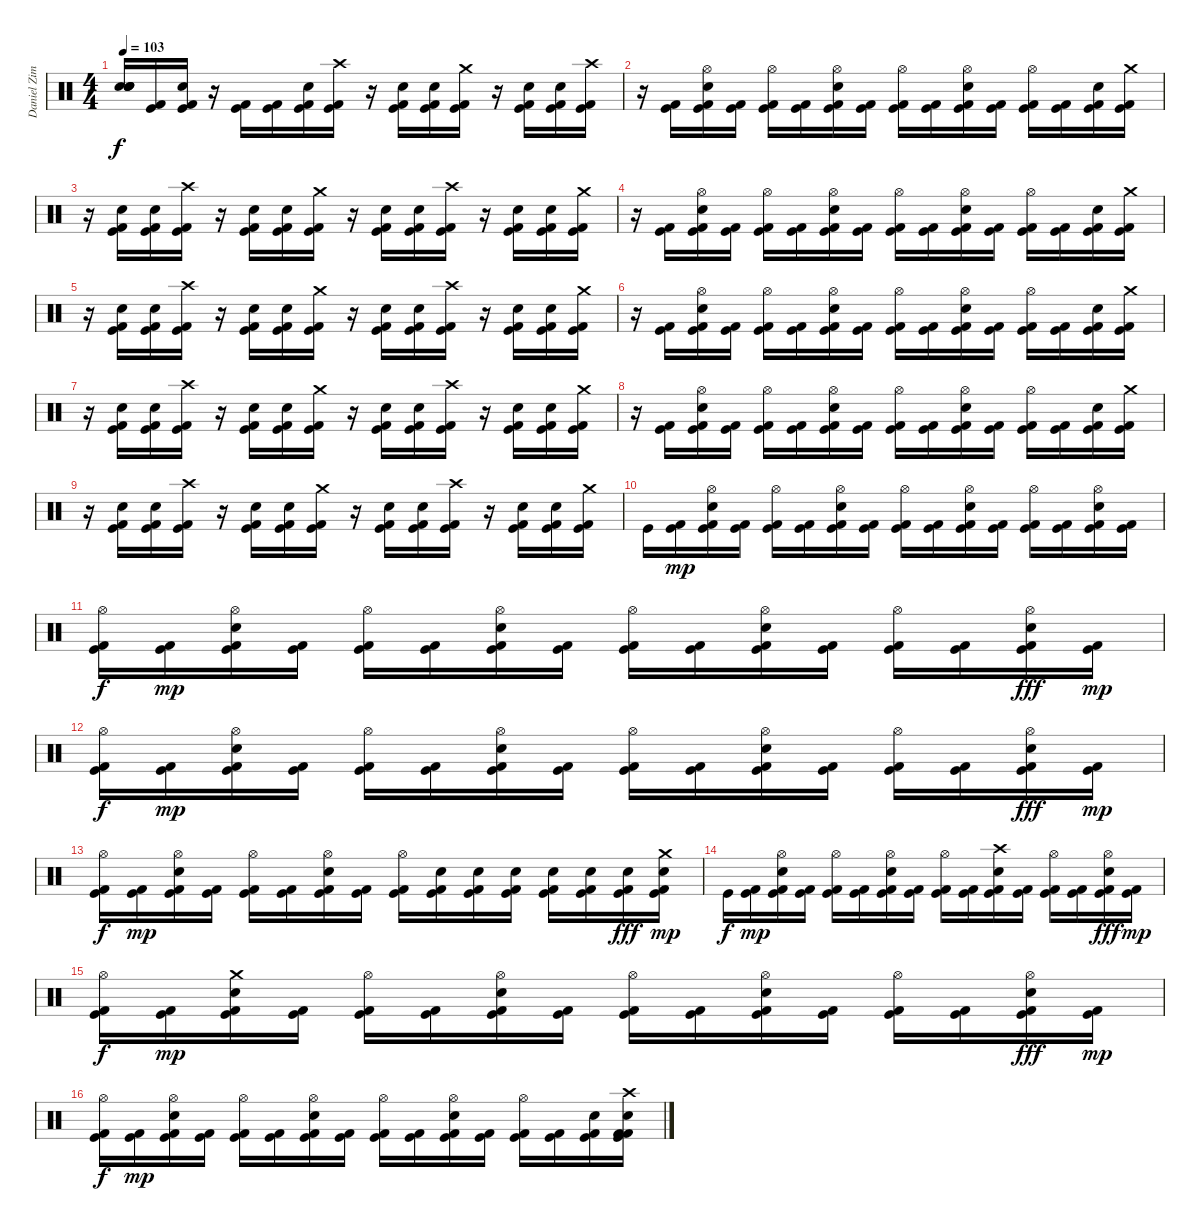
\track ("Daniel Zimmermann - Drums" "Daniel Zim") {instrument percussion}
\staff {score}
\articulation defaults
\ts (4 4)
\tempo 103
\clef neutral
\ks c
("Snare (hit)"{t} "Snare (hit)"{t} "Snare (hit)"{t} "Snare (hit)"{t}).16{dy f} ("Kick (hit)" "Kick (hit) 2").16 ("Kick (hit)" "Kick (hit) 2" "Electric Snare (hit)").16 r.16 ("Kick (hit)" "Kick (hit) 2").16 ("Kick (hit)" "Kick (hit) 2").16 ("Kick (hit)" "Kick (hit) 2" "Electric Snare (hit)").16 ("Kick (hit)" "Kick (hit) 2" "Crash high (hit)").16 r.16 ("Kick (hit)" "Kick (hit) 2" "Electric Snare (hit)").16 ("Kick (hit)" "Kick (hit) 2" "Electric Snare (hit)").16 ("Kick (hit)" "Kick (hit) 2" "Crash medium (hit)").16 r.16 ("Kick (hit)" "Kick (hit) 2" "Electric Snare (hit)").16 ("Kick (hit)" "Kick (hit) 2" "Electric Snare (hit)").16 ("Kick (hit)" "Kick (hit) 2" "Crash high (hit)").16 |
r.16 ("Kick (hit)" "Kick (hit) 2").16 ("Kick (hit)" "Kick (hit) 2" "Electric Snare (hit)" "Hi-Hat (open)").16 ("Kick (hit)" "Kick (hit) 2").16 ("Kick (hit)" "Kick (hit) 2" "Hi-Hat (open)").16 ("Kick (hit)" "Kick (hit) 2").16 ("Kick (hit)" "Kick (hit) 2" "Electric Snare (hit)" "Hi-Hat (open)").16 ("Kick (hit)" "Kick (hit) 2").16 ("Kick (hit)" "Kick (hit) 2" "Hi-Hat (open)").16 ("Kick (hit)" "Kick (hit) 2").16 ("Kick (hit)" "Kick (hit) 2" "Electric Snare (hit)" "Hi-Hat (open)").16 ("Kick (hit)" "Kick (hit) 2").16 ("Kick (hit)" "Kick (hit) 2" "Hi-Hat (open)").16 ("Kick (hit)" "Kick (hit) 2").16 ("Kick (hit)" "Kick (hit) 2" "Electric Snare (hit)").16 ("Kick (hit)" "Kick (hit) 2" "Crash medium (hit)").16 |
r.16 ("Kick (hit)" "Kick (hit) 2" "Electric Snare (hit)").16 ("Kick (hit)" "Kick (hit) 2" "Electric Snare (hit)").16 ("Kick (hit)" "Kick (hit) 2" "Crash high (hit)").16 r.16 ("Kick (hit)" "Kick (hit) 2" "Electric Snare (hit)").16 ("Kick (hit)" "Kick (hit) 2" "Electric Snare (hit)").16 ("Kick (hit)" "Kick (hit) 2" "Crash medium (hit)").16 r.16 ("Kick (hit)" "Kick (hit) 2" "Electric Snare (hit)").16 ("Kick (hit)" "Kick (hit) 2" "Electric Snare (hit)").16 ("Kick (hit)" "Kick (hit) 2" "Crash high (hit)").16 r.16 ("Kick (hit)" "Kick (hit) 2" "Electric Snare (hit)").16 ("Kick (hit)" "Kick (hit) 2" "Electric Snare (hit)").16 ("Kick (hit)" "Kick (hit) 2" "Crash medium (hit)").16 |
r.16 ("Kick (hit)" "Kick (hit) 2").16 ("Kick (hit)" "Kick (hit) 2" "Electric Snare (hit)" "Hi-Hat (open)").16 ("Kick (hit)" "Kick (hit) 2").16 ("Kick (hit)" "Kick (hit) 2" "Hi-Hat (open)").16 ("Kick (hit)" "Kick (hit) 2").16 ("Kick (hit)" "Kick (hit) 2" "Electric Snare (hit)" "Hi-Hat (open)").16 ("Kick (hit)" "Kick (hit) 2").16 ("Kick (hit)" "Kick (hit) 2" "Hi-Hat (open)").16 ("Kick (hit)" "Kick (hit) 2").16 ("Kick (hit)" "Kick (hit) 2" "Electric Snare (hit)" "Hi-Hat (open)").16 ("Kick (hit)" "Kick (hit) 2").16 ("Kick (hit)" "Kick (hit) 2" "Hi-Hat (open)").16 ("Kick (hit)" "Kick (hit) 2").16 ("Kick (hit)" "Kick (hit) 2" "Electric Snare (hit)").16 ("Kick (hit)" "Kick (hit) 2" "Crash medium (hit)").16 |
r.16 ("Kick (hit)" "Kick (hit) 2" "Electric Snare (hit)").16 ("Kick (hit)" "Kick (hit) 2" "Electric Snare (hit)").16 ("Kick (hit)" "Kick (hit) 2" "Crash high (hit)").16 r.16 ("Kick (hit)" "Kick (hit) 2" "Electric Snare (hit)").16 ("Kick (hit)" "Kick (hit) 2" "Electric Snare (hit)").16 ("Kick (hit)" "Kick (hit) 2" "Crash medium (hit)").16 r.16 ("Kick (hit)" "Kick (hit) 2" "Electric Snare (hit)").16 ("Kick (hit)" "Kick (hit) 2" "Electric Snare (hit)").16 ("Kick (hit)" "Kick (hit) 2" "Crash high (hit)").16 r.16 ("Kick (hit)" "Kick (hit) 2" "Electric Snare (hit)").16 ("Kick (hit)" "Kick (hit) 2" "Electric Snare (hit)").16 ("Kick (hit)" "Kick (hit) 2" "Crash medium (hit)").16 |
r.16 ("Kick (hit)" "Kick (hit) 2").16 ("Kick (hit)" "Kick (hit) 2" "Electric Snare (hit)" "Hi-Hat (open)").16 ("Kick (hit)" "Kick (hit) 2").16 ("Kick (hit)" "Kick (hit) 2" "Hi-Hat (open)").16 ("Kick (hit)" "Kick (hit) 2").16 ("Kick (hit)" "Kick (hit) 2" "Electric Snare (hit)" "Hi-Hat (open)").16 ("Kick (hit)" "Kick (hit) 2").16 ("Kick (hit)" "Kick (hit) 2" "Hi-Hat (open)").16 ("Kick (hit)" "Kick (hit) 2").16 ("Kick (hit)" "Kick (hit) 2" "Electric Snare (hit)" "Hi-Hat (open)").16 ("Kick (hit)" "Kick (hit) 2").16 ("Kick (hit)" "Kick (hit) 2" "Hi-Hat (open)").16 ("Kick (hit)" "Kick (hit) 2").16 ("Kick (hit)" "Kick (hit) 2" "Electric Snare (hit)").16 ("Kick (hit)" "Kick (hit) 2" "Crash medium (hit)").16 |
r.16 ("Kick (hit)" "Kick (hit) 2" "Electric Snare (hit)").16 ("Kick (hit)" "Kick (hit) 2" "Electric Snare (hit)").16 ("Kick (hit)" "Kick (hit) 2" "Crash high (hit)").16 r.16 ("Kick (hit)" "Kick (hit) 2" "Electric Snare (hit)").16 ("Kick (hit)" "Kick (hit) 2" "Electric Snare (hit)").16 ("Kick (hit)" "Kick (hit) 2" "Crash medium (hit)").16 r.16 ("Kick (hit)" "Kick (hit) 2" "Electric Snare (hit)").16 ("Kick (hit)" "Kick (hit) 2" "Electric Snare (hit)").16 ("Kick (hit)" "Kick (hit) 2" "Crash high (hit)").16 r.16 ("Kick (hit)" "Kick (hit) 2" "Electric Snare (hit)").16 ("Kick (hit)" "Kick (hit) 2" "Electric Snare (hit)").16 ("Kick (hit)" "Kick (hit) 2" "Crash medium (hit)").16 |
r.16 ("Kick (hit)" "Kick (hit) 2").16 ("Kick (hit)" "Kick (hit) 2" "Electric Snare (hit)" "Hi-Hat (open)").16 ("Kick (hit)" "Kick (hit) 2").16 ("Kick (hit)" "Kick (hit) 2" "Hi-Hat (open)").16 ("Kick (hit)" "Kick (hit) 2").16 ("Kick (hit)" "Kick (hit) 2" "Electric Snare (hit)" "Hi-Hat (open)").16 ("Kick (hit)" "Kick (hit) 2").16 ("Kick (hit)" "Kick (hit) 2" "Hi-Hat (open)").16 ("Kick (hit)" "Kick (hit) 2").16 ("Kick (hit)" "Kick (hit) 2" "Electric Snare (hit)" "Hi-Hat (open)").16 ("Kick (hit)" "Kick (hit) 2").16 ("Kick (hit)" "Kick (hit) 2" "Hi-Hat (open)").16 ("Kick (hit)" "Kick (hit) 2").16 ("Kick (hit)" "Kick (hit) 2" "Electric Snare (hit)").16 ("Kick (hit)" "Kick (hit) 2" "Crash medium (hit)").16 |
r.16 ("Kick (hit)" "Kick (hit) 2" "Electric Snare (hit)").16 ("Kick (hit)" "Kick (hit) 2" "Electric Snare (hit)").16 ("Kick (hit)" "Kick (hit) 2" "Crash high (hit)").16 r.16 ("Kick (hit)" "Kick (hit) 2" "Electric Snare (hit)").16 ("Kick (hit)" "Kick (hit) 2" "Electric Snare (hit)").16 ("Kick (hit)" "Kick (hit) 2" "Crash medium (hit)").16 r.16 ("Kick (hit)" "Kick (hit) 2" "Electric Snare (hit)").16 ("Kick (hit)" "Kick (hit) 2" "Electric Snare (hit)").16 ("Kick (hit)" "Kick (hit) 2" "Crash high (hit)").16 r.16 ("Kick (hit)" "Kick (hit) 2" "Electric Snare (hit)").16 ("Kick (hit)" "Kick (hit) 2" "Electric Snare (hit)").16 ("Kick (hit)" "Kick (hit) 2" "Crash medium (hit)").16 |
"Kick (hit)".16 ("Kick (hit)" "Kick (hit) 2").16{dy mp} ("Kick (hit)" "Kick (hit) 2" "Electric Snare (hit)" "Hi-Hat (open)").16 ("Kick (hit)" "Kick (hit) 2").16 ("Kick (hit)" "Kick (hit) 2" "Hi-Hat (open)").16 ("Kick (hit)" "Kick (hit) 2").16 ("Kick (hit)" "Kick (hit) 2" "Electric Snare (hit)" "Hi-Hat (open)").16 ("Kick (hit)" "Kick (hit) 2").16 ("Kick (hit)" "Kick (hit) 2" "Hi-Hat (open)").16 ("Kick (hit)" "Kick (hit) 2").16 ("Kick (hit)" "Kick (hit) 2" "Electric Snare (hit)" "Hi-Hat (open)").16 ("Kick (hit)" "Kick (hit) 2").16 ("Kick (hit)" "Kick (hit) 2" "Hi-Hat (open)").16 ("Kick (hit)" "Kick (hit) 2").16 ("Kick (hit)" "Kick (hit) 2" "Electric Snare (hit)" "Hi-Hat (open)").16 ("Kick (hit)" "Kick (hit) 2").16 |
("Kick (hit)" "Kick (hit) 2" "Hi-Hat (open)").16{dy f} ("Kick (hit)" "Kick (hit) 2").16{dy mp} ("Kick (hit)" "Kick (hit) 2" "Electric Snare (hit)" "Hi-Hat (open)").16 ("Kick (hit)" "Kick (hit) 2").16 ("Kick (hit)" "Kick (hit) 2" "Hi-Hat (open)").16 ("Kick (hit)" "Kick (hit) 2").16 ("Kick (hit)" "Kick (hit) 2" "Electric Snare (hit)" "Hi-Hat (open)").16 ("Kick (hit)" "Kick (hit) 2").16 ("Kick (hit)" "Kick (hit) 2" "Hi-Hat (open)").16 ("Kick (hit)" "Kick (hit) 2").16 ("Kick (hit)" "Kick (hit) 2" "Electric Snare (hit)" "Hi-Hat (open)").16 ("Kick (hit)" "Kick (hit) 2").16 ("Kick (hit)" "Kick (hit) 2" "Hi-Hat (open)").16 ("Kick (hit)" "Kick (hit) 2").16 ("Kick (hit)" "Kick (hit) 2" "Electric Snare (hit)" "Hi-Hat (open)").16{dy fff} ("Kick (hit)" "Kick (hit) 2").16{dy mp} |
("Kick (hit)" "Kick (hit) 2" "Hi-Hat (open)").16{dy f} ("Kick (hit)" "Kick (hit) 2").16{dy mp} ("Kick (hit)" "Kick (hit) 2" "Electric Snare (hit)" "Hi-Hat (open)").16 ("Kick (hit)" "Kick (hit) 2").16 ("Kick (hit)" "Kick (hit) 2" "Hi-Hat (open)").16 ("Kick (hit)" "Kick (hit) 2").16 ("Kick (hit)" "Kick (hit) 2" "Electric Snare (hit)" "Hi-Hat (open)").16 ("Kick (hit)" "Kick (hit) 2").16 ("Kick (hit)" "Kick (hit) 2" "Hi-Hat (open)").16 ("Kick (hit)" "Kick (hit) 2").16 ("Kick (hit)" "Kick (hit) 2" "Electric Snare (hit)" "Hi-Hat (open)").16 ("Kick (hit)" "Kick (hit) 2").16 ("Kick (hit)" "Kick (hit) 2" "Hi-Hat (open)").16 ("Kick (hit)" "Kick (hit) 2").16 ("Kick (hit)" "Kick (hit) 2" "Electric Snare (hit)" "Hi-Hat (open)").16{dy fff} ("Kick (hit)" "Kick (hit) 2").16{dy mp} |
("Kick (hit)" "Kick (hit) 2" "Hi-Hat (open)").16{dy f} ("Kick (hit)" "Kick (hit) 2").16{dy mp} ("Kick (hit)" "Kick (hit) 2" "Electric Snare (hit)" "Hi-Hat (open)").16 ("Kick (hit)" "Kick (hit) 2").16 ("Kick (hit)" "Kick (hit) 2" "Hi-Hat (open)").16 ("Kick (hit)" "Kick (hit) 2").16 ("Kick (hit)" "Kick (hit) 2" "Electric Snare (hit)" "Hi-Hat (open)").16 ("Kick (hit)" "Kick (hit) 2").16 ("Kick (hit)" "Kick (hit) 2" "Hi-Hat (open)").16 ("Kick (hit)" "Kick (hit) 2" "Electric Snare (hit)").16 ("Kick (hit)" "Kick (hit) 2" "Electric Snare (hit)").16 ("Kick (hit)" "Kick (hit) 2" "Electric Snare (hit)").16 ("Kick (hit)" "Kick (hit) 2" "Electric Snare (hit)").16 ("Kick (hit)" "Kick (hit) 2" "Electric Snare (hit)").16 ("Kick (hit)" "Kick (hit) 2" "Electric Snare (hit)").16{dy fff} ("Kick (hit)" "Kick (hit) 2" "Electric Snare (hit)" "Crash medium (hit)").16{dy mp} |
"Kick (hit)".16{dy f} ("Kick (hit)" "Kick (hit) 2").16{dy mp} ("Kick (hit)" "Kick (hit) 2" "Electric Snare (hit)" "Hi-Hat (open)").16 ("Kick (hit)" "Kick (hit) 2").16 ("Kick (hit)" "Kick (hit) 2" "Hi-Hat (open)").16 ("Kick (hit)" "Kick (hit) 2").16 ("Kick (hit)" "Kick (hit) 2" "Electric Snare (hit)" "Hi-Hat (open)").16 ("Kick (hit)" "Kick (hit) 2").16 ("Kick (hit)" "Kick (hit) 2" "Hi-Hat (open)").16 ("Kick (hit)" "Kick (hit) 2").16 ("Kick (hit)" "Kick (hit) 2" "Electric Snare (hit)" "Crash high (hit)").16 ("Kick (hit)" "Kick (hit) 2").16 ("Kick (hit)" "Kick (hit) 2" "Hi-Hat (open)").16 ("Kick (hit)" "Kick (hit) 2").16 ("Kick (hit)" "Kick (hit) 2" "Electric Snare (hit)" "Hi-Hat (open)").16{dy fff} ("Kick (hit)" "Kick (hit) 2").16{dy mp} |
("Kick (hit)" "Kick (hit) 2" "Hi-Hat (open)").16{dy f} ("Kick (hit)" "Kick (hit) 2").16{dy mp} ("Kick (hit)" "Kick (hit) 2" "Electric Snare (hit)" "Crash medium (hit)").16 ("Kick (hit)" "Kick (hit) 2").16 ("Kick (hit)" "Kick (hit) 2" "Hi-Hat (open)").16 ("Kick (hit)" "Kick (hit) 2").16 ("Kick (hit)" "Kick (hit) 2" "Electric Snare (hit)" "Hi-Hat (open)").16 ("Kick (hit)" "Kick (hit) 2").16 ("Kick (hit)" "Kick (hit) 2" "Hi-Hat (open)").16 ("Kick (hit)" "Kick (hit) 2").16 ("Kick (hit)" "Kick (hit) 2" "Electric Snare (hit)" "Hi-Hat (open)").16 ("Kick (hit)" "Kick (hit) 2").16 ("Kick (hit)" "Kick (hit) 2" "Hi-Hat (open)").16 ("Kick (hit)" "Kick (hit) 2").16 ("Kick (hit)" "Kick (hit) 2" "Electric Snare (hit)" "Hi-Hat (open)").16{dy fff} ("Kick (hit)" "Kick (hit) 2").16{dy mp} |
("Kick (hit)" "Kick (hit) 2" "Hi-Hat (open)").16{dy f} ("Kick (hit)" "Kick (hit) 2").16{dy mp} ("Kick (hit)" "Kick (hit) 2" "Electric Snare (hit)" "Hi-Hat (open)").16 ("Kick (hit)" "Kick (hit) 2").16 ("Kick (hit)" "Kick (hit) 2" "Hi-Hat (open)").16 ("Kick (hit)" "Kick (hit) 2").16 ("Kick (hit)" "Kick (hit) 2" "Electric Snare (hit)" "Hi-Hat (open)").16 ("Kick (hit)" "Kick (hit) 2").16 ("Kick (hit)" "Kick (hit) 2" "Hi-Hat (open)").16 ("Kick (hit)" "Kick (hit) 2").16 ("Kick (hit)" "Kick (hit) 2" "Electric Snare (hit)" "Hi-Hat (open)").16 ("Kick (hit)" "Kick (hit) 2").16 ("Kick (hit)" "Kick (hit) 2" "Hi-Hat (open)").16 ("Kick (hit)" "Kick (hit) 2").16 ("Kick (hit)" "Kick (hit) 2" "Electric Snare (hit)").16 ("Kick (hit)" "Kick (hit) 2" "Electric Snare (hit)" "Kick (hit) 2" "Crash high (hit)").16
